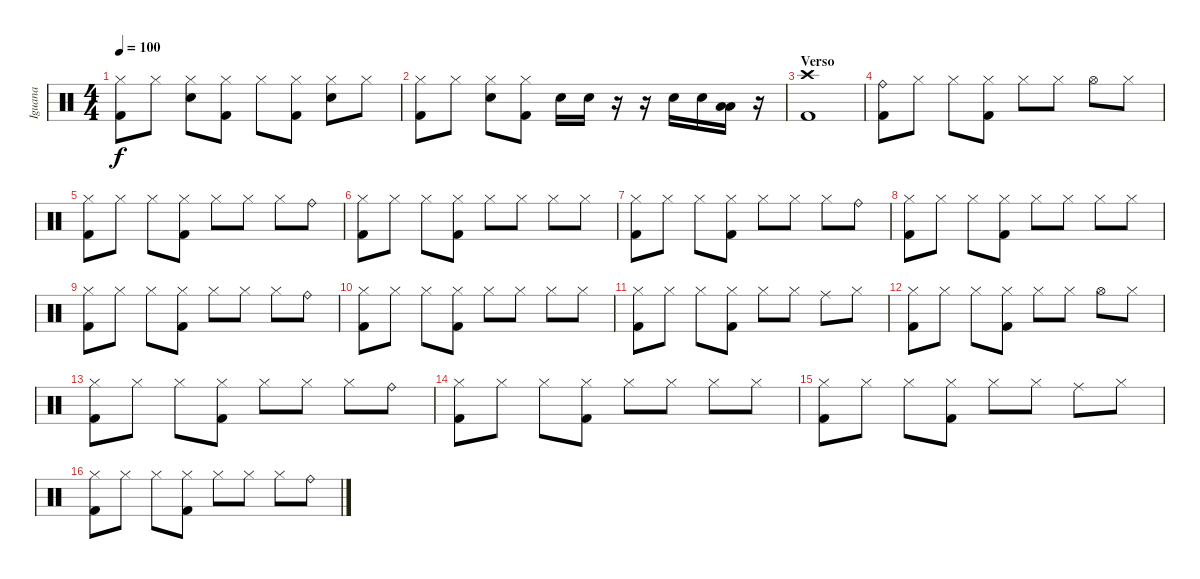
\track ("Iguana" "Iguana") {instrument percussion}
\staff {score}
\articulation defaults
\ts (4 4)
\tempo 100
\clef neutral
\ks c
("Hi-Hat (closed)" "Kick (hit) 2").8{dy f} "Hi-Hat (closed)".8 ("Hi-Hat (closed)" "Electric Snare (hit)").8 ("Hi-Hat (closed)" "Kick (hit) 2").8 "Hi-Hat (closed)".8 ("Hi-Hat (closed)" "Kick (hit) 2").8 ("Hi-Hat (closed)" "Electric Snare (hit)").8 "Hi-Hat (closed)".8 |
("Hi-Hat (closed)" "Kick (hit) 2").8 "Hi-Hat (closed)".8 ("Hi-Hat (closed)" "Electric Snare (hit)").8 ("Hi-Hat (closed)" "Kick (hit) 2").8 "Electric Snare (hit)".16 "Electric Snare (hit)".16 r.16 r.16 "Electric Snare (hit)".16 "Electric Snare (hit)".16 ("Low Tom (hit)" "Low Tom (hit)").16 r.16 |
\section ("" "Verso")
("Crash high (hit)" "Kick (hit) 2").1 |
("Ride (bell)" "Kick (hit) 2").8 "Hi-Hat (closed)".8 "Hi-Hat (closed)".8 ("Hi-Hat (closed)" "Kick (hit) 2").8 "Hi-Hat (closed)".8 "Hi-Hat (closed)".8 "Hi-Hat (open)".8 "Hi-Hat (closed)".8 |
("Hi-Hat (closed)" "Kick (hit) 2").8 "Hi-Hat (closed)".8 "Hi-Hat (closed)".8 ("Hi-Hat (closed)" "Kick (hit) 2").8 "Hi-Hat (closed)".8 "Hi-Hat (closed)".8 "Hi-Hat (closed)".8 "Ride (bell)".8 |
("Hi-Hat (closed)" "Kick (hit) 2").8 "Hi-Hat (closed)".8 "Hi-Hat (closed)".8 ("Hi-Hat (closed)" "Kick (hit) 2").8 "Hi-Hat (closed)".8 "Hi-Hat (closed)".8 "Hi-Hat (closed)".8 "Hi-Hat (closed)".8 |
("Hi-Hat (closed)" "Kick (hit) 2").8 "Hi-Hat (closed)".8 "Hi-Hat (closed)".8 ("Hi-Hat (closed)" "Kick (hit) 2").8 "Hi-Hat (closed)".8 "Hi-Hat (closed)".8 "Hi-Hat (closed)".8 "Ride (bell)".8 |
("Hi-Hat (closed)" "Kick (hit) 2").8 "Hi-Hat (closed)".8 "Hi-Hat (closed)".8 ("Hi-Hat (closed)" "Kick (hit) 2").8 "Hi-Hat (closed)".8 "Hi-Hat (closed)".8 "Hi-Hat (closed)".8 "Hi-Hat (closed)".8 |
("Hi-Hat (closed)" "Kick (hit) 2").8 "Hi-Hat (closed)".8 "Hi-Hat (closed)".8 ("Hi-Hat (closed)" "Kick (hit) 2").8 "Hi-Hat (closed)".8 "Hi-Hat (closed)".8 "Hi-Hat (closed)".8 "Ride (bell)".8 |
("Hi-Hat (closed)" "Kick (hit) 2").8 "Hi-Hat (closed)".8 "Hi-Hat (closed)".8 ("Hi-Hat (closed)" "Kick (hit) 2").8 "Hi-Hat (closed)".8 "Hi-Hat (closed)".8 "Hi-Hat (closed)".8 "Hi-Hat (closed)".8 |
("Hi-Hat (closed)" "Kick (hit) 2").8 "Hi-Hat (closed)".8 "Hi-Hat (closed)".8 ("Hi-Hat (closed)" "Kick (hit) 2").8 "Hi-Hat (closed)".8 "Hi-Hat (closed)".8 "Ride (middle)".8 "Hi-Hat (closed)".8 |
("Hi-Hat (closed)" "Kick (hit) 2").8 "Hi-Hat (closed)".8 "Hi-Hat (closed)".8 ("Hi-Hat (closed)" "Kick (hit) 2").8 "Hi-Hat (closed)".8 "Hi-Hat (closed)".8 "Hi-Hat (open)".8 "Hi-Hat (closed)".8 |
("Hi-Hat (closed)" "Kick (hit) 2").8 "Hi-Hat (closed)".8 "Hi-Hat (closed)".8 ("Hi-Hat (closed)" "Kick (hit) 2").8 "Hi-Hat (closed)".8 "Hi-Hat (closed)".8 "Hi-Hat (closed)".8 "Ride (bell)".8 |
("Hi-Hat (closed)" "Kick (hit) 2").8 "Hi-Hat (closed)".8 "Hi-Hat (closed)".8 ("Hi-Hat (closed)" "Kick (hit) 2").8 "Hi-Hat (closed)".8 "Hi-Hat (closed)".8 "Hi-Hat (closed)".8 "Hi-Hat (closed)".8 |
("Hi-Hat (closed)" "Kick (hit) 2").8 "Hi-Hat (closed)".8 "Hi-Hat (closed)".8 ("Hi-Hat (closed)" "Kick (hit) 2").8 "Hi-Hat (closed)".8 "Hi-Hat (closed)".8 "Ride (middle)".8 "Hi-Hat (closed)".8 |
("Hi-Hat (closed)" "Kick (hit) 2").8 "Hi-Hat (closed)".8 "Hi-Hat (closed)".8 ("Hi-Hat (closed)" "Kick (hit) 2").8 "Hi-Hat (closed)".8 "Hi-Hat (closed)".8 "Hi-Hat (closed)".8 "Ride (bell)".8
